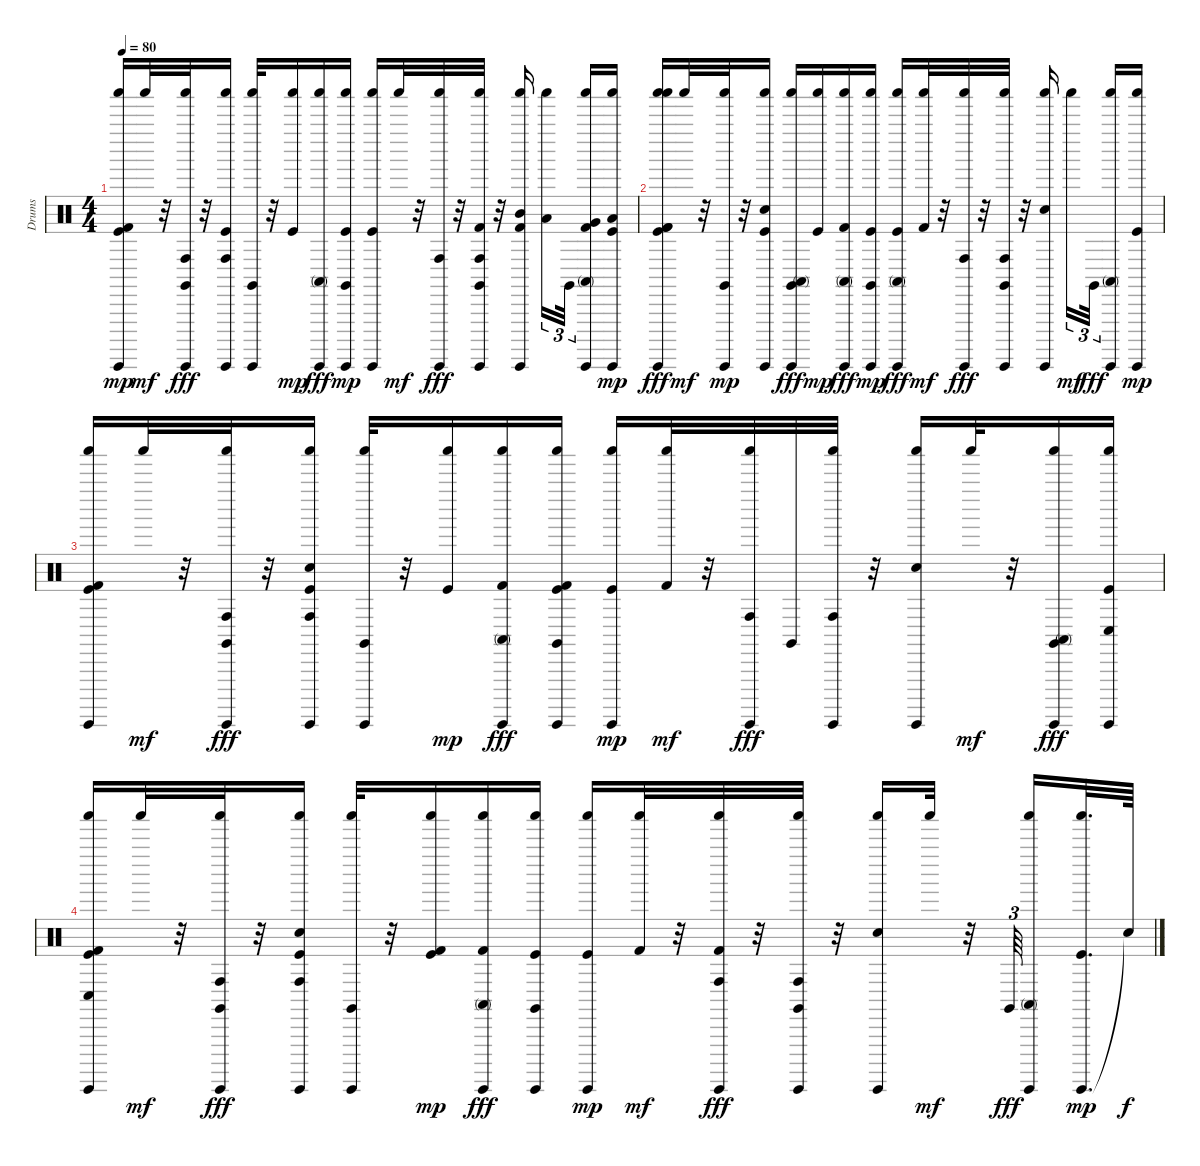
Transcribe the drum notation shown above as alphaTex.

\track ("Drums" "Drums") {instrument percussion}
\staff {score}
\articulation defaults
\ts (4 4)
\tempo 80
\clef neutral
\ks c
("Kick (hit) 2" "Guiro (hit)" "Shaker (hit)" "Kick (hit)").16{dy mp} "Shaker (hit)".32{dy mf} r.32 ("Claves (hit)" "Guiro (hit)" "Shaker (hit)" "Conga high (hit)").32{dy fff} r.32 ("Guiro (hit)" "Shaker (hit)" "Kick (hit)" "Conga high (hit)").16 ("Claves (hit)" "Guiro (hit)" "Shaker (hit)").32 r.32 ("Shaker (hit)" "Kick (hit)").16{dy mp} ("Guiro (hit)" "Shaker (hit)" "Conga high (mute)").16{dy fff} ("Claves (hit)" "Guiro (hit)" "Shaker (hit)" "Kick (hit)").16{dy mp} ("Guiro (hit)" "Shaker (hit)" "Kick (hit)").16 "Shaker (hit)".32{dy mf} r.32 ("Guiro (hit)" "Shaker (hit)" "Conga high (hit)").32{dy fff} r.32 ("Claves (hit)" "Kick (hit) 2" "Guiro (hit)" "Shaker (hit)" "Conga high (hit)").32 r.32 ("Mid Tom (hit)" "Kick (hit) 2" "Guiro (hit)" "Shaker (hit)").16 ("Shaker (hit)" "Low Tom (hit)").16{tu (3 2)} "Claves (hit)".32{tu (3 2)} ("Kick (hit) 2" "Guiro (hit)" "Shaker (hit)" "Conga high (mute)" "Very Low Tom (hit)").16 ("Low Floor Tom (hit)" "Guiro (hit)" "Shaker (hit)" "Kick (hit)").16{dy mp} |
("Kick (hit) 2" "Guiro (hit)" "Shaker (hit)" "Kick (hit)" "Kick (hit) 2" "Shaker (hit)").16{dy fff} "Shaker (hit)".32{dy mf} r.32 ("Claves (hit)" "Guiro (hit)" "Shaker (hit)").32{dy mp} r.32 ("Electric Snare (hit)" "Guiro (hit)" "Shaker (hit)" "Kick (hit)").16 ("Claves (hit)" "Guiro (hit)" "Shaker (hit)" "Conga high (mute)").16{dy fff} ("Shaker (hit)" "Kick (hit)").16{dy mp} ("Kick (hit) 2" "Guiro (hit)" "Shaker (hit)" "Conga high (mute)").16{dy fff} ("Claves (hit)" "Guiro (hit)" "Shaker (hit)" "Kick (hit)").16{dy mp} ("Guiro (hit)" "Shaker (hit)" "Kick (hit)" "Conga high (mute)").16{dy fff} ("Kick (hit) 2" "Shaker (hit)").32{dy mf} r.32 ("Guiro (hit)" "Shaker (hit)" "Conga high (hit)").32{dy fff} r.32 ("Claves (hit)" "Guiro (hit)" "Shaker (hit)" "Conga high (hit)").32 r.32 ("Electric Snare (hit)" "Guiro (hit)" "Shaker (hit)").16 "Shaker (hit)".16{tu (3 2) dy mf} "Claves (hit)".32{tu (3 2) dy fff} ("Guiro (hit)" "Shaker (hit)" "Conga high (mute)").16 ("Guiro (hit)" "Shaker (hit)" "Kick (hit)").16{dy mp} |
("Kick (hit) 2" "Guiro (hit)" "Shaker (hit)" "Kick (hit)").16 "Shaker (hit)".32{dy mf} r.32 ("Guiro (hit)" "Shaker (hit)" "Conga high (hit)" "Claves (hit)").32{dy fff} r.32 ("Electric Snare (hit)" "Guiro (hit)" "Shaker (hit)" "Kick (hit)" "Conga high (hit)").16 ("Claves (hit)" "Guiro (hit)" "Shaker (hit)").32 r.32 ("Shaker (hit)" "Kick (hit)").16{dy mp} ("Kick (hit) 2" "Guiro (hit)" "Shaker (hit)" "Conga high (mute)").16{dy fff} ("Kick (hit) 2" "Guiro (hit)" "Shaker (hit)" "Kick (hit)" "Claves (hit)").16 ("Guiro (hit)" "Shaker (hit)" "Kick (hit)").16{dy mp} ("Kick (hit) 2" "Shaker (hit)").32{dy mf} r.32 ("Guiro (hit)" "Shaker (hit)" "Conga high (hit)").32{dy fff} "Claves (hit)".32 ("Guiro (hit)" "Shaker (hit)" "Conga high (hit)").32 r.32 ("Electric Snare (hit)" "Guiro (hit)" "Shaker (hit)").16 "Shaker (hit)".32{dy mf} r.32 ("Claves (hit)" "Guiro (hit)" "Shaker (hit)" "Conga high (mute)").16{dy fff} ("Guiro (hit)" "Shaker (hit)" "Kick (hit)" "Conga low (hit)").16 |
("Kick (hit) 2" "Guiro (hit)" "Shaker (hit)" "Kick (hit)" "Conga low (hit)").16 "Shaker (hit)".32{dy mf} r.32 ("Guiro (hit)" "Shaker (hit)" "Conga high (hit)" "Claves (hit)").32{dy fff} r.32 ("Electric Snare (hit)" "Guiro (hit)" "Shaker (hit)" "Kick (hit)" "Conga high (hit)").16 ("Claves (hit)" "Guiro (hit)" "Shaker (hit)").32 r.32 ("Kick (hit) 2" "Shaker (hit)" "Kick (hit)").16{dy mp} ("Kick (hit) 2" "Guiro (hit)" "Shaker (hit)" "Conga high (mute)").16{dy fff} ("Guiro (hit)" "Shaker (hit)" "Kick (hit)" "Claves (hit)").16 ("Guiro (hit)" "Shaker (hit)" "Kick (hit)").16{dy mp} ("Kick (hit) 2" "Shaker (hit)").32{dy mf} r.32 ("Kick (hit) 2" "Guiro (hit)" "Shaker (hit)" "Conga high (hit)").32{dy fff} r.32 ("Claves (hit)" "Guiro (hit)" "Shaker (hit)" "Conga high (hit)").32 r.32 ("Electric Snare (hit)" "Guiro (hit)" "Shaker (hit)").16 "Shaker (hit)".32{dy mf} r.32 "Claves (hit)".64{tu (3 2) dy fff} ("Guiro (hit)" "Shaker (hit)" "Conga high (mute)").16 ("Guiro (hit)" "Shaker (hit)" "Kick (hit)").32{d dy mp} "Snare (hit)"{t}.64{dy f}
